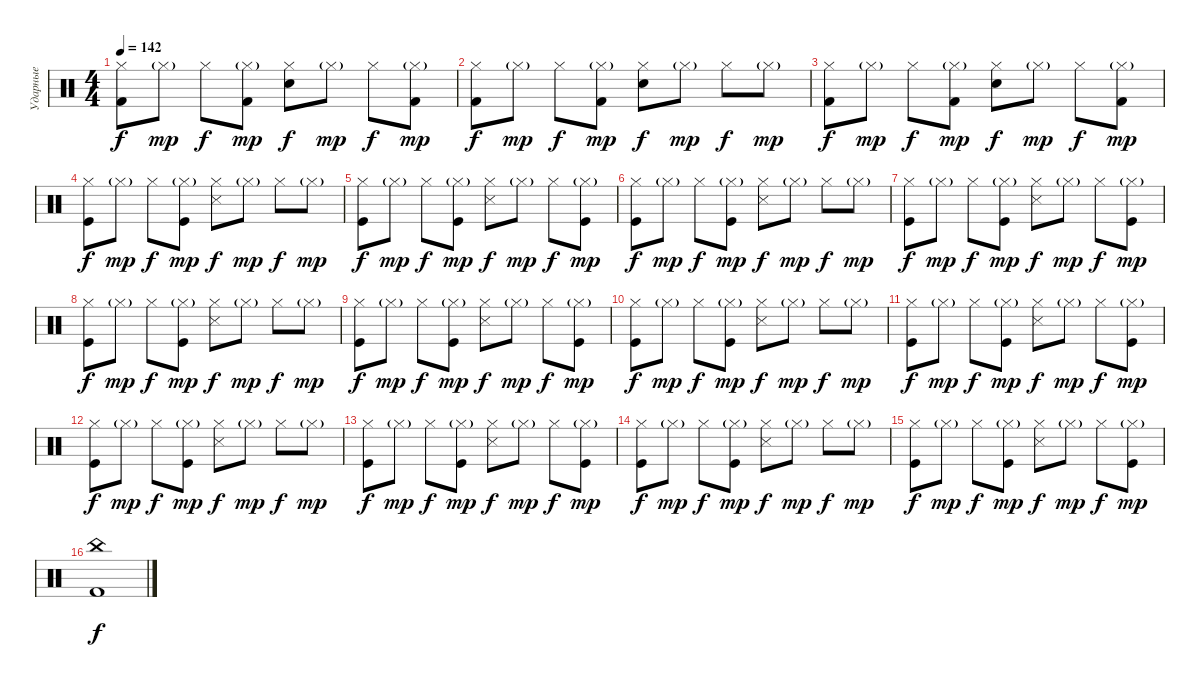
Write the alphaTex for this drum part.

\track ("Ударные" "Ударные") {instrument percussion}
\staff {score}
\articulation defaults
\ts (4 4)
\tempo 142
\clef neutral
\ks c
("Hi-Hat (closed)" "Kick (hit) 2").8{dy f} "Hi-Hat (closed)"{g}.8{dy mp} "Hi-Hat (closed)".8{dy f} ("Hi-Hat (closed)"{g} "Kick (hit) 2").8{dy mp} ("Hi-Hat (closed)" "Snare (hit) 2").8{dy f} "Hi-Hat (closed)"{g}.8{dy mp} "Hi-Hat (closed)".8{dy f} ("Hi-Hat (closed)"{g} "Kick (hit) 2").8{dy mp} |
("Hi-Hat (closed)" "Kick (hit) 2").8{dy f} "Hi-Hat (closed)"{g}.8{dy mp} "Hi-Hat (closed)".8{dy f} ("Hi-Hat (closed)"{g} "Kick (hit) 2").8{dy mp} ("Hi-Hat (closed)" "Snare (hit) 2").8{dy f} "Hi-Hat (closed)"{g}.8{dy mp} "Hi-Hat (closed)".8{dy f} "Hi-Hat (closed)"{g}.8{dy mp} |
("Hi-Hat (closed)" "Kick (hit) 2").8{dy f} "Hi-Hat (closed)"{g}.8{dy mp} "Hi-Hat (closed)".8{dy f} ("Hi-Hat (closed)"{g} "Kick (hit) 2").8{dy mp} ("Hi-Hat (closed)" "Snare (hit) 2").8{dy f} "Hi-Hat (closed)"{g}.8{dy mp} "Hi-Hat (closed)".8{dy f} ("Hi-Hat (closed)"{g} "Kick (hit) 2").8{dy mp} |
("Hi-Hat (closed)" "Kick (hit)").8{dy f} "Hi-Hat (closed)"{g}.8{dy mp} "Hi-Hat (closed)".8{dy f} ("Hi-Hat (closed)"{g} "Kick (hit)").8{dy mp} ("Hi-Hat (closed)" "Snare (side stick) 3").8{dy f} "Hi-Hat (closed)"{g}.8{dy mp} "Hi-Hat (closed)".8{dy f} "Hi-Hat (closed)"{g}.8{dy mp} |
("Hi-Hat (closed)" "Kick (hit)").8{dy f} "Hi-Hat (closed)"{g}.8{dy mp} "Hi-Hat (closed)".8{dy f} ("Hi-Hat (closed)"{g} "Kick (hit)").8{dy mp} ("Hi-Hat (closed)" "Snare (side stick) 3").8{dy f} "Hi-Hat (closed)"{g}.8{dy mp} "Hi-Hat (closed)".8{dy f} ("Hi-Hat (closed)"{g} "Kick (hit)").8{dy mp} |
("Hi-Hat (closed)" "Kick (hit)").8{dy f} "Hi-Hat (closed)"{g}.8{dy mp} "Hi-Hat (closed)".8{dy f} ("Hi-Hat (closed)"{g} "Kick (hit)").8{dy mp} ("Hi-Hat (closed)" "Snare (side stick) 3").8{dy f} "Hi-Hat (closed)"{g}.8{dy mp} "Hi-Hat (closed)".8{dy f} "Hi-Hat (closed)"{g}.8{dy mp} |
("Hi-Hat (closed)" "Kick (hit)").8{dy f} "Hi-Hat (closed)"{g}.8{dy mp} "Hi-Hat (closed)".8{dy f} ("Hi-Hat (closed)"{g} "Kick (hit)").8{dy mp} ("Hi-Hat (closed)" "Snare (side stick) 3").8{dy f} "Hi-Hat (closed)"{g}.8{dy mp} "Hi-Hat (closed)".8{dy f} ("Hi-Hat (closed)"{g} "Kick (hit)").8{dy mp} |
("Hi-Hat (closed)" "Kick (hit)").8{dy f} "Hi-Hat (closed)"{g}.8{dy mp} "Hi-Hat (closed)".8{dy f} ("Hi-Hat (closed)"{g} "Kick (hit)").8{dy mp} ("Hi-Hat (closed)" "Snare (side stick) 3").8{dy f} "Hi-Hat (closed)"{g}.8{dy mp} "Hi-Hat (closed)".8{dy f} "Hi-Hat (closed)"{g}.8{dy mp} |
("Hi-Hat (closed)" "Kick (hit)").8{dy f} "Hi-Hat (closed)"{g}.8{dy mp} "Hi-Hat (closed)".8{dy f} ("Hi-Hat (closed)"{g} "Kick (hit)").8{dy mp} ("Hi-Hat (closed)" "Snare (side stick) 3").8{dy f} "Hi-Hat (closed)"{g}.8{dy mp} "Hi-Hat (closed)".8{dy f} ("Hi-Hat (closed)"{g} "Kick (hit)").8{dy mp} |
("Hi-Hat (closed)" "Kick (hit)").8{dy f} "Hi-Hat (closed)"{g}.8{dy mp} "Hi-Hat (closed)".8{dy f} ("Hi-Hat (closed)"{g} "Kick (hit)").8{dy mp} ("Hi-Hat (closed)" "Snare (side stick) 3").8{dy f} "Hi-Hat (closed)"{g}.8{dy mp} "Hi-Hat (closed)".8{dy f} "Hi-Hat (closed)"{g}.8{dy mp} |
("Hi-Hat (closed)" "Kick (hit)").8{dy f} "Hi-Hat (closed)"{g}.8{dy mp} "Hi-Hat (closed)".8{dy f} ("Hi-Hat (closed)"{g} "Kick (hit)").8{dy mp} ("Hi-Hat (closed)" "Snare (side stick) 3").8{dy f} "Hi-Hat (closed)"{g}.8{dy mp} "Hi-Hat (closed)".8{dy f} ("Hi-Hat (closed)"{g} "Kick (hit)").8{dy mp} |
("Hi-Hat (closed)" "Kick (hit)").8{dy f} "Hi-Hat (closed)"{g}.8{dy mp} "Hi-Hat (closed)".8{dy f} ("Hi-Hat (closed)"{g} "Kick (hit)").8{dy mp} ("Hi-Hat (closed)" "Snare (side stick) 3").8{dy f} "Hi-Hat (closed)"{g}.8{dy mp} "Hi-Hat (closed)".8{dy f} "Hi-Hat (closed)"{g}.8{dy mp} |
("Hi-Hat (closed)" "Kick (hit)").8{dy f} "Hi-Hat (closed)"{g}.8{dy mp} "Hi-Hat (closed)".8{dy f} ("Hi-Hat (closed)"{g} "Kick (hit)").8{dy mp} ("Hi-Hat (closed)" "Snare (side stick) 3").8{dy f} "Hi-Hat (closed)"{g}.8{dy mp} "Hi-Hat (closed)".8{dy f} ("Hi-Hat (closed)"{g} "Kick (hit)").8{dy mp} |
("Hi-Hat (closed)" "Kick (hit)").8{dy f} "Hi-Hat (closed)"{g}.8{dy mp} "Hi-Hat (closed)".8{dy f} ("Hi-Hat (closed)"{g} "Kick (hit)").8{dy mp} ("Hi-Hat (closed)" "Snare (side stick) 3").8{dy f} "Hi-Hat (closed)"{g}.8{dy mp} "Hi-Hat (closed)".8{dy f} "Hi-Hat (closed)"{g}.8{dy mp} |
("Hi-Hat (closed)" "Kick (hit)").8{dy f} "Hi-Hat (closed)"{g}.8{dy mp} "Hi-Hat (closed)".8{dy f} ("Hi-Hat (closed)"{g} "Kick (hit)").8{dy mp} ("Hi-Hat (closed)" "Snare (side stick) 3").8{dy f} "Hi-Hat (closed)"{g}.8{dy mp} "Hi-Hat (closed)".8{dy f} ("Hi-Hat (closed)"{g} "Kick (hit)").8{dy mp} |
("China (hit)" "Kick (hit) 2").1{dy f}
